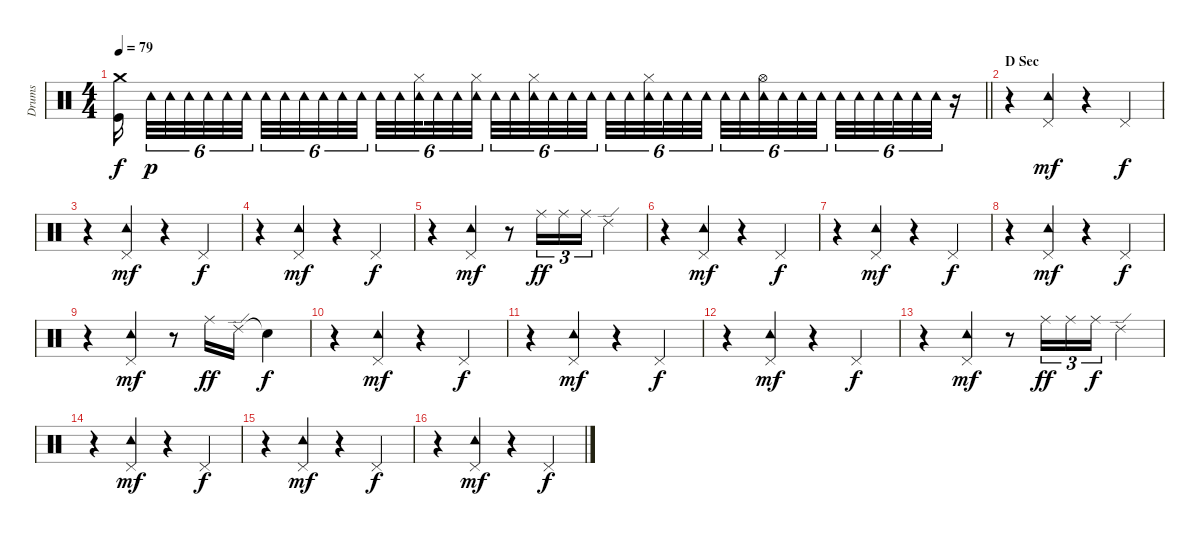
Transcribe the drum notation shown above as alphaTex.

\track ("Drums" "Drums") {instrument percussion}
\staff {score}
\articulation defaults
\ts (4 4)
\tempo 79
\clef neutral
\barLineRight lightlight
\ks c
("Crash medium (hit)" "Kick (hit)").16{dy f beam splitsecondary} "Tambourine (hit)".32{tu (6 4) dy p} "Tambourine (hit)".32{tu (6 4)} "Tambourine (hit)".32{tu (6 4) beam splitsecondary} "Tambourine (hit)".32{tu (6 4)} "Tambourine (hit)".32{tu (6 4)} "Tambourine (hit)".32{tu (6 4) beam splitsecondary} "Tambourine (hit)".32{tu (6 4)} "Tambourine (hit)".32{tu (6 4)} "Tambourine (hit)".32{tu (6 4)} "Tambourine (hit)".32{tu (6 4)} "Tambourine (hit)".32{tu (6 4)} "Tambourine (hit)".32{tu (6 4) beam splitsecondary} "Tambourine (hit)".32{tu (6 4)} "Tambourine (hit)".32{tu (6 4)} ("Hi-Hat (closed)" "Tambourine (hit)").32{tu (6 4) beam splitsecondary} "Tambourine (hit)".32{tu (6 4)} "Tambourine (hit)".32{tu (6 4)} ("Hi-Hat (closed)" "Tambourine (hit)").32{tu (6 4) beam splitsecondary} "Tambourine (hit)".32{tu (6 4)} "Tambourine (hit)".32{tu (6 4)} ("Hi-Hat (closed)" "Tambourine (hit)").32{tu (6 4)} "Tambourine (hit)".32{tu (6 4)} "Tambourine (hit)".32{tu (6 4)} "Tambourine (hit)".32{tu (6 4) beam splitsecondary} "Tambourine (hit)".32{tu (6 4)} "Tambourine (hit)".32{tu (6 4)} ("Hi-Hat (closed)" "Tambourine (hit)").32{tu (6 4) beam splitsecondary} "Tambourine (hit)".32{tu (6 4)} "Tambourine (hit)".32{tu (6 4)} "Tambourine (hit)".32{tu (6 4) beam splitsecondary} "Tambourine (hit)".32{tu (6 4)} "Tambourine (hit)".32{tu (6 4)} ("Hi-Hat (open)" "Tambourine (hit)").32{tu (6 4)} "Tambourine (hit)".32{tu (6 4)} "Tambourine (hit)".32{tu (6 4)} "Tambourine (hit)".32{tu (6 4) beam splitsecondary} "Tambourine (hit)".32{tu (6 4)} "Tambourine (hit)".32{tu (6 4)} "Tambourine (hit)".32{tu (6 4) beam splitsecondary} "Tambourine (hit)".32{tu (6 4)} "Tambourine (hit)".32{tu (6 4)} "Tambourine (hit)".32{tu (6 4)} r.16 |
\section ("" "D Sec")
r.4 ("Tambourine (hit)" "Pedal Hi-Hat (hit)").4{dy mf} r.4 "Pedal Hi-Hat (hit)".4{dy f} |
r.4 ("Tambourine (hit)" "Pedal Hi-Hat (hit)").4{dy mf} r.4 "Pedal Hi-Hat (hit)".4{dy f} |
r.4 ("Tambourine (hit)" "Pedal Hi-Hat (hit)").4{dy mf} r.4 "Pedal Hi-Hat (hit)".4{dy f} |
r.4 ("Tambourine (hit)" "Pedal Hi-Hat (hit)").4{dy mf} r.8 "Ride (middle)".16{tu (3 2) dy ff} "Ride (middle)".16{tu (3 2)} "Ride (middle)".16{tu (3 2)} "Ride (edge) 2".4 |
r.4 ("Tambourine (hit)" "Pedal Hi-Hat (hit)").4{dy mf} r.4 "Pedal Hi-Hat (hit)".4{dy f} |
r.4 ("Tambourine (hit)" "Pedal Hi-Hat (hit)").4{dy mf} r.4 "Pedal Hi-Hat (hit)".4{dy f} |
r.4 ("Tambourine (hit)" "Pedal Hi-Hat (hit)").4{dy mf} r.4 "Pedal Hi-Hat (hit)".4{dy f} |
r.4 ("Tambourine (hit)" "Pedal Hi-Hat (hit)").4{dy mf} r.8 "Ride (middle)".16{dy ff} "Ride (edge) 2".16 "Snare (hit)"{t}.4{dy f} |
r.4 ("Tambourine (hit)" "Pedal Hi-Hat (hit)").4{txt "" dy mf} r.4 "Pedal Hi-Hat (hit)".4{dy f} |
r.4 ("Tambourine (hit)" "Pedal Hi-Hat (hit)").4{dy mf} r.4 "Pedal Hi-Hat (hit)".4{dy f} |
r.4 ("Tambourine (hit)" "Pedal Hi-Hat (hit)").4{dy mf} r.4 "Pedal Hi-Hat (hit)".4{dy f} |
r.4 ("Tambourine (hit)" "Pedal Hi-Hat (hit)").4{dy mf} r.8 "Ride (middle)".16{tu (3 2) dy ff} "Ride (middle)".16{tu (3 2)} "Ride (middle)".16{tu (3 2) dy f} "Ride (edge) 2".4 |
r.4 ("Tambourine (hit)" "Pedal Hi-Hat (hit)").4{dy mf} r.4 "Pedal Hi-Hat (hit)".4{dy f} |
r.4 ("Tambourine (hit)" "Pedal Hi-Hat (hit)").4{dy mf} r.4 "Pedal Hi-Hat (hit)".4{dy f} |
r.4 ("Tambourine (hit)" "Pedal Hi-Hat (hit)").4{dy mf} r.4 "Pedal Hi-Hat (hit)".4{dy f}
